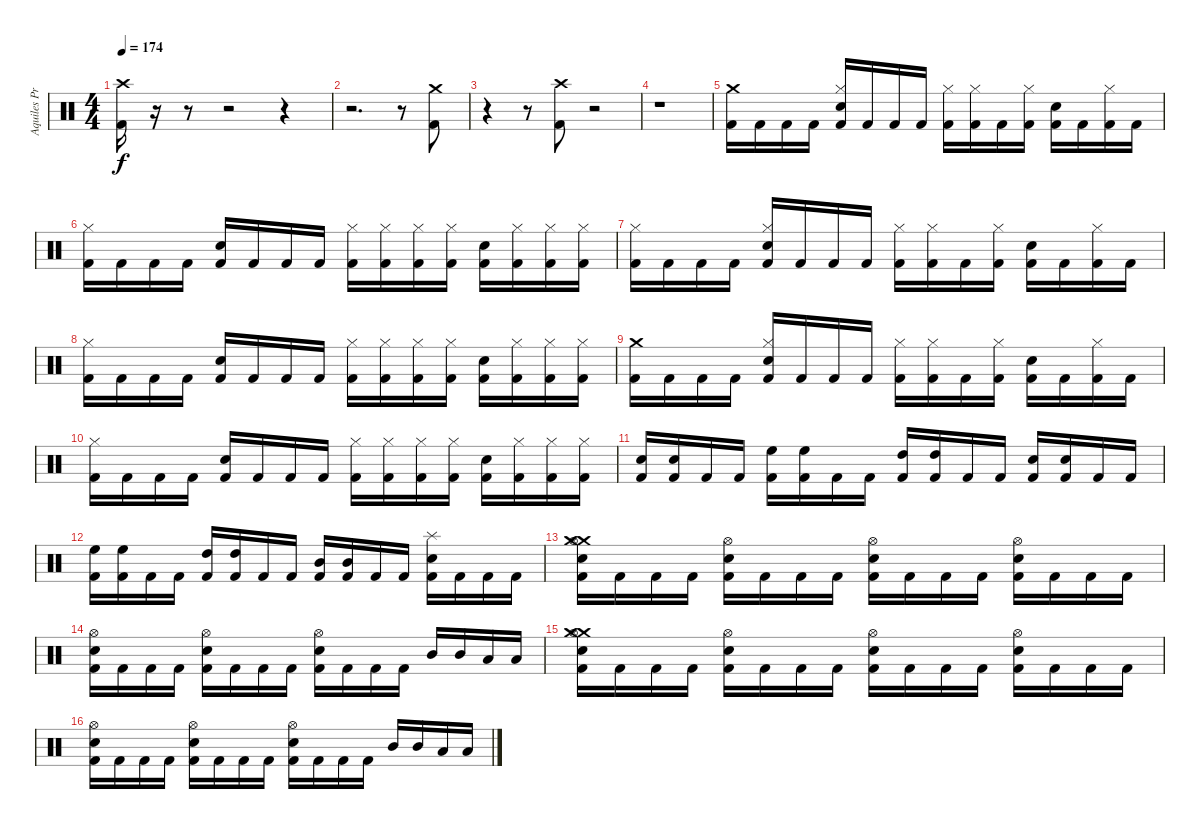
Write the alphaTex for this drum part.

\track ("Aquiles Priester" "Aquiles Pr") {instrument percussion}
\staff {score}
\articulation defaults
\ts (4 4)
\tempo 174
\clef neutral
\ks c
("Crash high (hit)" "Kick (hit) 2").16{dy f} r.16 r.8 r.2 r.4 |
r.2{d} r.8 ("Crash medium (hit)" "Kick (hit) 2").8 |
r.4 r.8 ("Crash high (hit)" "Kick (hit) 2").8 r.2 |
r.1 |
("Crash medium (hit)" "Kick (hit) 2").16 "Kick (hit) 2".16 "Kick (hit) 2".16 "Kick (hit) 2".16 ("Hi-Hat (closed)" "Electric Snare (hit)" "Kick (hit) 2").16 "Kick (hit) 2".16 "Kick (hit) 2".16 "Kick (hit) 2".16 ("Hi-Hat (closed)" "Kick (hit) 2").16 ("Hi-Hat (closed)" "Kick (hit) 2").16 "Kick (hit) 2".16 ("Hi-Hat (closed)" "Kick (hit) 2").16 ("Electric Snare (hit)" "Kick (hit) 2").16 "Kick (hit) 2".16 ("Hi-Hat (closed)" "Kick (hit) 2").16 "Kick (hit) 2".16 |
("Hi-Hat (closed)" "Kick (hit) 2").16 "Kick (hit) 2".16 "Kick (hit) 2".16 "Kick (hit) 2".16 ("Electric Snare (hit)" "Kick (hit) 2").16 "Kick (hit) 2".16 "Kick (hit) 2".16 "Kick (hit) 2".16 ("Hi-Hat (closed)" "Kick (hit) 2").16 ("Hi-Hat (closed)" "Kick (hit) 2").16 ("Hi-Hat (closed)" "Kick (hit) 2").16 ("Hi-Hat (closed)" "Kick (hit) 2").16 ("Electric Snare (hit)" "Kick (hit) 2").16 ("Hi-Hat (closed)" "Kick (hit) 2").16 ("Hi-Hat (closed)" "Kick (hit) 2").16 ("Hi-Hat (closed)" "Kick (hit) 2").16 |
("Hi-Hat (closed)" "Kick (hit) 2").16 "Kick (hit) 2".16 "Kick (hit) 2".16 "Kick (hit) 2".16 ("Hi-Hat (closed)" "Electric Snare (hit)" "Kick (hit) 2").16 "Kick (hit) 2".16 "Kick (hit) 2".16 "Kick (hit) 2".16 ("Hi-Hat (closed)" "Kick (hit) 2").16 ("Hi-Hat (closed)" "Kick (hit) 2").16 "Kick (hit) 2".16 ("Hi-Hat (closed)" "Kick (hit) 2").16 ("Electric Snare (hit)" "Kick (hit) 2").16 "Kick (hit) 2".16 ("Hi-Hat (closed)" "Kick (hit) 2").16 "Kick (hit) 2".16 |
("Hi-Hat (closed)" "Kick (hit) 2").16 "Kick (hit) 2".16 "Kick (hit) 2".16 "Kick (hit) 2".16 ("Electric Snare (hit)" "Kick (hit) 2").16 "Kick (hit) 2".16 "Kick (hit) 2".16 "Kick (hit) 2".16 ("Hi-Hat (closed)" "Kick (hit) 2").16 ("Hi-Hat (closed)" "Kick (hit) 2").16 ("Hi-Hat (closed)" "Kick (hit) 2").16 ("Hi-Hat (closed)" "Kick (hit) 2").16 ("Electric Snare (hit)" "Kick (hit) 2").16 ("Hi-Hat (closed)" "Kick (hit) 2").16 ("Hi-Hat (closed)" "Kick (hit) 2").16 ("Hi-Hat (closed)" "Kick (hit) 2").16 |
("Crash medium (hit)" "Kick (hit) 2").16 "Kick (hit) 2".16 "Kick (hit) 2".16 "Kick (hit) 2".16 ("Hi-Hat (closed)" "Electric Snare (hit)" "Kick (hit) 2").16 "Kick (hit) 2".16 "Kick (hit) 2".16 "Kick (hit) 2".16 ("Hi-Hat (closed)" "Kick (hit) 2").16 ("Hi-Hat (closed)" "Kick (hit) 2").16 "Kick (hit) 2".16 ("Hi-Hat (closed)" "Kick (hit) 2").16 ("Electric Snare (hit)" "Kick (hit) 2").16 "Kick (hit) 2".16 ("Hi-Hat (closed)" "Kick (hit) 2").16 "Kick (hit) 2".16 |
("Hi-Hat (closed)" "Kick (hit) 2").16 "Kick (hit) 2".16 "Kick (hit) 2".16 "Kick (hit) 2".16 ("Electric Snare (hit)" "Kick (hit) 2").16 "Kick (hit) 2".16 "Kick (hit) 2".16 "Kick (hit) 2".16 ("Hi-Hat (closed)" "Kick (hit) 2").16 ("Hi-Hat (closed)" "Kick (hit) 2").16 ("Hi-Hat (closed)" "Kick (hit) 2").16 ("Hi-Hat (closed)" "Kick (hit) 2").16 ("Electric Snare (hit)" "Kick (hit) 2").16 ("Hi-Hat (closed)" "Kick (hit) 2").16 ("Hi-Hat (closed)" "Kick (hit) 2").16 ("Hi-Hat (closed)" "Kick (hit) 2").16 |
("Electric Snare (hit)" "Kick (hit) 2").16 ("Electric Snare (hit)" "Kick (hit) 2").16 "Kick (hit) 2".16 "Kick (hit) 2".16 ("High Floor Tom (hit)" "Kick (hit) 2").16 ("High Floor Tom (hit)" "Kick (hit) 2").16 "Kick (hit) 2".16 "Kick (hit) 2".16 ("High Tom (hit)" "Kick (hit) 2").16 ("High Tom (hit)" "Kick (hit) 2").16 "Kick (hit) 2".16 "Kick (hit) 2".16 ("Electric Snare (hit)" "Kick (hit) 2").16 ("Electric Snare (hit)" "Kick (hit) 2").16 "Kick (hit) 2".16 "Kick (hit) 2".16 |
("High Floor Tom (hit)" "Kick (hit) 2").16 ("High Floor Tom (hit)" "Kick (hit) 2").16 "Kick (hit) 2".16 "Kick (hit) 2".16 ("High Tom (hit)" "Kick (hit) 2").16 ("High Tom (hit)" "Kick (hit) 2").16 "Kick (hit) 2".16 "Kick (hit) 2".16 ("Mid Tom (hit)" "Kick (hit) 2").16 ("Mid Tom (hit)" "Kick (hit) 2").16 "Kick (hit) 2".16 "Kick (hit) 2".16 ("Splash (hit)" "Electric Snare (hit)" "Kick (hit) 2").16 "Kick (hit) 2".16 "Kick (hit) 2".16 "Kick (hit) 2".16 |
("Crash medium (hit)" "Crash medium (hit)" "Snare (hit) 2" "Hi-Hat (open)" "Kick (hit) 2").16 "Kick (hit) 2".16 "Kick (hit) 2".16 "Kick (hit) 2".16 ("Snare (hit) 2" "Hi-Hat (open)" "Kick (hit) 2").16 "Kick (hit) 2".16 "Kick (hit) 2".16 "Kick (hit) 2".16 ("Snare (hit) 2" "Hi-Hat (open)" "Kick (hit) 2").16 "Kick (hit) 2".16 "Kick (hit) 2".16 "Kick (hit) 2".16 ("Snare (hit) 2" "Hi-Hat (open)" "Kick (hit) 2").16 "Kick (hit) 2".16 "Kick (hit) 2".16 "Kick (hit) 2".16 |
("Snare (hit) 2" "Hi-Hat (open)" "Kick (hit) 2").16 "Kick (hit) 2".16 "Kick (hit) 2".16 "Kick (hit) 2".16 ("Snare (hit) 2" "Hi-Hat (open)" "Kick (hit) 2").16 "Kick (hit) 2".16 "Kick (hit) 2".16 "Kick (hit) 2".16 ("Snare (hit) 2" "Hi-Hat (open)" "Kick (hit) 2").16 "Kick (hit) 2".16 "Kick (hit) 2".16 "Kick (hit) 2".16 "Mid Tom (hit)".16 "Mid Tom (hit)".16 "Low Tom (hit)".16 "Low Tom (hit)".16 |
("Crash medium (hit)" "Crash medium (hit)" "Snare (hit) 2" "Hi-Hat (open)" "Kick (hit) 2").16 "Kick (hit) 2".16 "Kick (hit) 2".16 "Kick (hit) 2".16 ("Snare (hit) 2" "Hi-Hat (open)" "Kick (hit) 2").16 "Kick (hit) 2".16 "Kick (hit) 2".16 "Kick (hit) 2".16 ("Snare (hit) 2" "Hi-Hat (open)" "Kick (hit) 2").16 "Kick (hit) 2".16 "Kick (hit) 2".16 "Kick (hit) 2".16 ("Snare (hit) 2" "Hi-Hat (open)" "Kick (hit) 2").16 "Kick (hit) 2".16 "Kick (hit) 2".16 "Kick (hit) 2".16 |
("Snare (hit) 2" "Hi-Hat (open)" "Kick (hit) 2").16 "Kick (hit) 2".16 "Kick (hit) 2".16 "Kick (hit) 2".16 ("Snare (hit) 2" "Hi-Hat (open)" "Kick (hit) 2").16 "Kick (hit) 2".16 "Kick (hit) 2".16 "Kick (hit) 2".16 ("Snare (hit) 2" "Hi-Hat (open)" "Kick (hit) 2").16 "Kick (hit) 2".16 "Kick (hit) 2".16 "Kick (hit) 2".16 "Mid Tom (hit)".16 "Mid Tom (hit)".16 "Low Tom (hit)".16 "Low Tom (hit)".16
